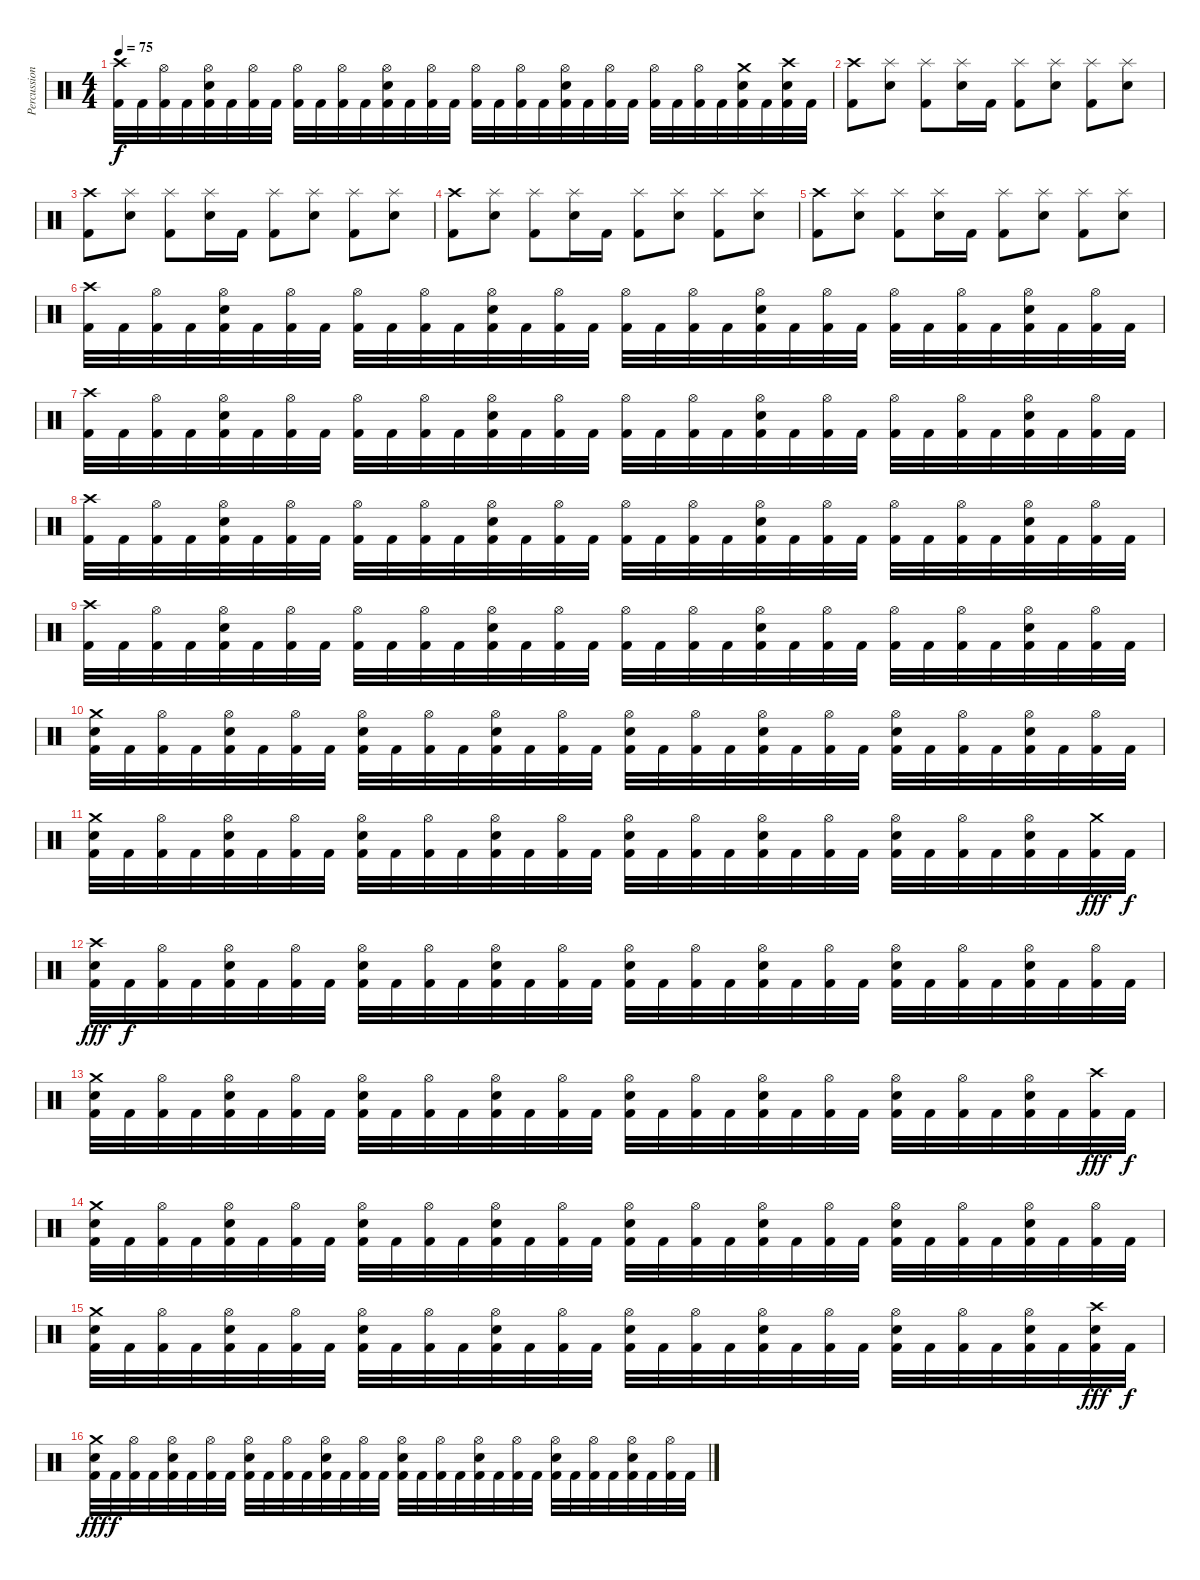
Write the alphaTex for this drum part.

\track ("Percussion" "Percussion") {instrument percussion}
\staff {score}
\articulation defaults
\ts (4 4)
\tempo 75
\clef neutral
\ks c
("Crash high (hit)" "Kick (hit) 2").32{dy f} "Kick (hit) 2".32 ("Hi-Hat (open)" "Kick (hit) 2").32 "Kick (hit) 2".32 ("Hi-Hat (open)" "Electric Snare (hit)" "Kick (hit) 2").32 "Kick (hit) 2".32 ("Hi-Hat (open)" "Kick (hit) 2").32 "Kick (hit) 2".32 ("Hi-Hat (open)" "Kick (hit) 2").32 "Kick (hit) 2".32 ("Hi-Hat (open)" "Kick (hit) 2").32 "Kick (hit) 2".32 ("Hi-Hat (open)" "Electric Snare (hit)" "Kick (hit) 2").32 "Kick (hit) 2".32 ("Hi-Hat (open)" "Kick (hit) 2").32 "Kick (hit) 2".32 ("Hi-Hat (open)" "Kick (hit) 2").32 "Kick (hit) 2".32 ("Hi-Hat (open)" "Kick (hit) 2").32 "Kick (hit) 2".32 ("Hi-Hat (open)" "Electric Snare (hit)" "Kick (hit) 2").32 "Kick (hit) 2".32 ("Hi-Hat (open)" "Kick (hit) 2").32 "Kick (hit) 2".32 ("Hi-Hat (open)" "Kick (hit) 2").32 "Kick (hit) 2".32 ("Hi-Hat (open)" "Kick (hit) 2").32 "Kick (hit) 2".32 ("Crash medium (hit)" "Electric Snare (hit)" "Kick (hit) 2").32 "Kick (hit) 2".32 ("Crash high (hit)" "Electric Snare (hit)" "Kick (hit) 2").32 "Kick (hit) 2".32 |
("Crash high (hit)" "Kick (hit) 2").8 ("Splash (hit)" "Electric Snare (hit)").8 ("Splash (hit)" "Kick (hit) 2").8 ("Splash (hit)" "Electric Snare (hit)").16 "Kick (hit) 2".16 ("Splash (hit)" "Kick (hit) 2").8 ("Splash (hit)" "Electric Snare (hit)").8 ("Splash (hit)" "Kick (hit) 2").8 ("Splash (hit)" "Electric Snare (hit)").8 |
("Crash high (hit)" "Kick (hit) 2").8 ("Splash (hit)" "Electric Snare (hit)").8 ("Splash (hit)" "Kick (hit) 2").8 ("Splash (hit)" "Electric Snare (hit)").16 "Kick (hit) 2".16 ("Splash (hit)" "Kick (hit) 2").8 ("Splash (hit)" "Electric Snare (hit)").8 ("Splash (hit)" "Kick (hit) 2").8 ("Splash (hit)" "Electric Snare (hit)").8 |
("Crash high (hit)" "Kick (hit) 2").8 ("Splash (hit)" "Electric Snare (hit)").8 ("Splash (hit)" "Kick (hit) 2").8 ("Splash (hit)" "Electric Snare (hit)").16 "Kick (hit) 2".16 ("Splash (hit)" "Kick (hit) 2").8 ("Splash (hit)" "Electric Snare (hit)").8 ("Splash (hit)" "Kick (hit) 2").8 ("Splash (hit)" "Electric Snare (hit)").8 |
("Crash high (hit)" "Kick (hit) 2").8 ("Splash (hit)" "Electric Snare (hit)").8 ("Splash (hit)" "Kick (hit) 2").8 ("Splash (hit)" "Electric Snare (hit)").16 "Kick (hit) 2".16 ("Splash (hit)" "Kick (hit) 2").8 ("Splash (hit)" "Electric Snare (hit)").8 ("Splash (hit)" "Kick (hit) 2").8 ("Splash (hit)" "Electric Snare (hit)").8 |
("Crash high (hit)" "Kick (hit) 2").32 "Kick (hit) 2".32 ("Hi-Hat (open)" "Kick (hit) 2").32 "Kick (hit) 2".32 ("Hi-Hat (open)" "Electric Snare (hit)" "Kick (hit) 2").32 "Kick (hit) 2".32 ("Hi-Hat (open)" "Kick (hit) 2").32 "Kick (hit) 2".32 ("Hi-Hat (open)" "Kick (hit) 2").32 "Kick (hit) 2".32 ("Hi-Hat (open)" "Kick (hit) 2").32 "Kick (hit) 2".32 ("Hi-Hat (open)" "Electric Snare (hit)" "Kick (hit) 2").32 "Kick (hit) 2".32 ("Hi-Hat (open)" "Kick (hit) 2").32 "Kick (hit) 2".32 ("Hi-Hat (open)" "Kick (hit) 2").32 "Kick (hit) 2".32 ("Hi-Hat (open)" "Kick (hit) 2").32 "Kick (hit) 2".32 ("Hi-Hat (open)" "Electric Snare (hit)" "Kick (hit) 2").32 "Kick (hit) 2".32 ("Hi-Hat (open)" "Kick (hit) 2").32 "Kick (hit) 2".32 ("Hi-Hat (open)" "Kick (hit) 2").32 "Kick (hit) 2".32 ("Hi-Hat (open)" "Kick (hit) 2").32 "Kick (hit) 2".32 ("Hi-Hat (open)" "Electric Snare (hit)" "Kick (hit) 2").32 "Kick (hit) 2".32 ("Hi-Hat (open)" "Kick (hit) 2").32 "Kick (hit) 2".32 |
("Crash high (hit)" "Kick (hit) 2").32 "Kick (hit) 2".32 ("Hi-Hat (open)" "Kick (hit) 2").32 "Kick (hit) 2".32 ("Hi-Hat (open)" "Electric Snare (hit)" "Kick (hit) 2").32 "Kick (hit) 2".32 ("Hi-Hat (open)" "Kick (hit) 2").32 "Kick (hit) 2".32 ("Hi-Hat (open)" "Kick (hit) 2").32 "Kick (hit) 2".32 ("Hi-Hat (open)" "Kick (hit) 2").32 "Kick (hit) 2".32 ("Hi-Hat (open)" "Electric Snare (hit)" "Kick (hit) 2").32 "Kick (hit) 2".32 ("Hi-Hat (open)" "Kick (hit) 2").32 "Kick (hit) 2".32 ("Hi-Hat (open)" "Kick (hit) 2").32 "Kick (hit) 2".32 ("Hi-Hat (open)" "Kick (hit) 2").32 "Kick (hit) 2".32 ("Hi-Hat (open)" "Electric Snare (hit)" "Kick (hit) 2").32 "Kick (hit) 2".32 ("Hi-Hat (open)" "Kick (hit) 2").32 "Kick (hit) 2".32 ("Hi-Hat (open)" "Kick (hit) 2").32 "Kick (hit) 2".32 ("Hi-Hat (open)" "Kick (hit) 2").32 "Kick (hit) 2".32 ("Hi-Hat (open)" "Electric Snare (hit)" "Kick (hit) 2").32 "Kick (hit) 2".32 ("Hi-Hat (open)" "Kick (hit) 2").32 "Kick (hit) 2".32 |
("Crash high (hit)" "Kick (hit) 2").32 "Kick (hit) 2".32 ("Hi-Hat (open)" "Kick (hit) 2").32 "Kick (hit) 2".32 ("Hi-Hat (open)" "Electric Snare (hit)" "Kick (hit) 2").32 "Kick (hit) 2".32 ("Hi-Hat (open)" "Kick (hit) 2").32 "Kick (hit) 2".32 ("Hi-Hat (open)" "Kick (hit) 2").32 "Kick (hit) 2".32 ("Hi-Hat (open)" "Kick (hit) 2").32 "Kick (hit) 2".32 ("Hi-Hat (open)" "Electric Snare (hit)" "Kick (hit) 2").32 "Kick (hit) 2".32 ("Hi-Hat (open)" "Kick (hit) 2").32 "Kick (hit) 2".32 ("Hi-Hat (open)" "Kick (hit) 2").32 "Kick (hit) 2".32 ("Hi-Hat (open)" "Kick (hit) 2").32 "Kick (hit) 2".32 ("Hi-Hat (open)" "Electric Snare (hit)" "Kick (hit) 2").32 "Kick (hit) 2".32 ("Hi-Hat (open)" "Kick (hit) 2").32 "Kick (hit) 2".32 ("Hi-Hat (open)" "Kick (hit) 2").32 "Kick (hit) 2".32 ("Hi-Hat (open)" "Kick (hit) 2").32 "Kick (hit) 2".32 ("Hi-Hat (open)" "Electric Snare (hit)" "Kick (hit) 2").32 "Kick (hit) 2".32 ("Hi-Hat (open)" "Kick (hit) 2").32 "Kick (hit) 2".32 |
("Crash high (hit)" "Kick (hit) 2").32 "Kick (hit) 2".32 ("Hi-Hat (open)" "Kick (hit) 2").32 "Kick (hit) 2".32 ("Hi-Hat (open)" "Electric Snare (hit)" "Kick (hit) 2").32 "Kick (hit) 2".32 ("Hi-Hat (open)" "Kick (hit) 2").32 "Kick (hit) 2".32 ("Hi-Hat (open)" "Kick (hit) 2").32 "Kick (hit) 2".32 ("Hi-Hat (open)" "Kick (hit) 2").32 "Kick (hit) 2".32 ("Hi-Hat (open)" "Electric Snare (hit)" "Kick (hit) 2").32 "Kick (hit) 2".32 ("Hi-Hat (open)" "Kick (hit) 2").32 "Kick (hit) 2".32 ("Hi-Hat (open)" "Kick (hit) 2").32 "Kick (hit) 2".32 ("Hi-Hat (open)" "Kick (hit) 2").32 "Kick (hit) 2".32 ("Hi-Hat (open)" "Electric Snare (hit)" "Kick (hit) 2").32 "Kick (hit) 2".32 ("Hi-Hat (open)" "Kick (hit) 2").32 "Kick (hit) 2".32 ("Hi-Hat (open)" "Kick (hit) 2").32 "Kick (hit) 2".32 ("Hi-Hat (open)" "Kick (hit) 2").32 "Kick (hit) 2".32 ("Hi-Hat (open)" "Electric Snare (hit)" "Kick (hit) 2").32 "Kick (hit) 2".32 ("Hi-Hat (open)" "Kick (hit) 2").32 "Kick (hit) 2".32 |
("Crash medium (hit)" "Electric Snare (hit)" "Kick (hit) 2").32 "Kick (hit) 2".32 ("Hi-Hat (open)" "Kick (hit) 2").32 "Kick (hit) 2".32 ("Hi-Hat (open)" "Electric Snare (hit)" "Kick (hit) 2").32 "Kick (hit) 2".32 ("Hi-Hat (open)" "Kick (hit) 2").32 "Kick (hit) 2".32 ("Hi-Hat (open)" "Electric Snare (hit)" "Kick (hit) 2").32 "Kick (hit) 2".32 ("Hi-Hat (open)" "Kick (hit) 2").32 "Kick (hit) 2".32 ("Hi-Hat (open)" "Electric Snare (hit)" "Kick (hit) 2").32 "Kick (hit) 2".32 ("Hi-Hat (open)" "Kick (hit) 2").32 "Kick (hit) 2".32 ("Hi-Hat (open)" "Electric Snare (hit)" "Kick (hit) 2").32 "Kick (hit) 2".32 ("Hi-Hat (open)" "Kick (hit) 2").32 "Kick (hit) 2".32 ("Hi-Hat (open)" "Electric Snare (hit)" "Kick (hit) 2").32 "Kick (hit) 2".32 ("Hi-Hat (open)" "Kick (hit) 2").32 "Kick (hit) 2".32 ("Hi-Hat (open)" "Electric Snare (hit)" "Kick (hit) 2").32 "Kick (hit) 2".32 ("Hi-Hat (open)" "Kick (hit) 2").32 "Kick (hit) 2".32 ("Hi-Hat (open)" "Electric Snare (hit)" "Kick (hit) 2").32 "Kick (hit) 2".32 ("Hi-Hat (open)" "Kick (hit) 2").32 "Kick (hit) 2".32 |
("Crash medium (hit)" "Electric Snare (hit)" "Kick (hit) 2").32 "Kick (hit) 2".32 ("Hi-Hat (open)" "Kick (hit) 2").32 "Kick (hit) 2".32 ("Hi-Hat (open)" "Electric Snare (hit)" "Kick (hit) 2").32 "Kick (hit) 2".32 ("Hi-Hat (open)" "Kick (hit) 2").32 "Kick (hit) 2".32 ("Hi-Hat (open)" "Electric Snare (hit)" "Kick (hit) 2").32 "Kick (hit) 2".32 ("Hi-Hat (open)" "Kick (hit) 2").32 "Kick (hit) 2".32 ("Hi-Hat (open)" "Electric Snare (hit)" "Kick (hit) 2").32 "Kick (hit) 2".32 ("Hi-Hat (open)" "Kick (hit) 2").32 "Kick (hit) 2".32 ("Hi-Hat (open)" "Electric Snare (hit)" "Kick (hit) 2").32 "Kick (hit) 2".32 ("Hi-Hat (open)" "Kick (hit) 2").32 "Kick (hit) 2".32 ("Hi-Hat (open)" "Electric Snare (hit)" "Kick (hit) 2").32 "Kick (hit) 2".32 ("Hi-Hat (open)" "Kick (hit) 2").32 "Kick (hit) 2".32 ("Hi-Hat (open)" "Electric Snare (hit)" "Kick (hit) 2").32 "Kick (hit) 2".32 ("Hi-Hat (open)" "Kick (hit) 2").32 "Kick (hit) 2".32 ("Hi-Hat (open)" "Electric Snare (hit)" "Kick (hit) 2").32 "Kick (hit) 2".32 ("Crash medium (hit)" "Kick (hit) 2").32{dy fff} "Kick (hit) 2".32{dy f} |
("Crash high (hit)" "Electric Snare (hit)" "Kick (hit) 2").32{dy fff} "Kick (hit) 2".32{dy f} ("Hi-Hat (open)" "Kick (hit) 2").32 "Kick (hit) 2".32 ("Hi-Hat (open)" "Electric Snare (hit)" "Kick (hit) 2").32 "Kick (hit) 2".32 ("Hi-Hat (open)" "Kick (hit) 2").32 "Kick (hit) 2".32 ("Hi-Hat (open)" "Electric Snare (hit)" "Kick (hit) 2").32 "Kick (hit) 2".32 ("Hi-Hat (open)" "Kick (hit) 2").32 "Kick (hit) 2".32 ("Hi-Hat (open)" "Electric Snare (hit)" "Kick (hit) 2").32 "Kick (hit) 2".32 ("Hi-Hat (open)" "Kick (hit) 2").32 "Kick (hit) 2".32 ("Hi-Hat (open)" "Electric Snare (hit)" "Kick (hit) 2").32 "Kick (hit) 2".32 ("Hi-Hat (open)" "Kick (hit) 2").32 "Kick (hit) 2".32 ("Hi-Hat (open)" "Electric Snare (hit)" "Kick (hit) 2").32 "Kick (hit) 2".32 ("Hi-Hat (open)" "Kick (hit) 2").32 "Kick (hit) 2".32 ("Hi-Hat (open)" "Electric Snare (hit)" "Kick (hit) 2").32 "Kick (hit) 2".32 ("Hi-Hat (open)" "Kick (hit) 2").32 "Kick (hit) 2".32 ("Hi-Hat (open)" "Electric Snare (hit)" "Kick (hit) 2").32 "Kick (hit) 2".32 ("Hi-Hat (open)" "Kick (hit) 2").32 "Kick (hit) 2".32 |
("Crash medium (hit)" "Electric Snare (hit)" "Kick (hit) 2").32 "Kick (hit) 2".32 ("Hi-Hat (open)" "Kick (hit) 2").32 "Kick (hit) 2".32 ("Hi-Hat (open)" "Electric Snare (hit)" "Kick (hit) 2").32 "Kick (hit) 2".32 ("Hi-Hat (open)" "Kick (hit) 2").32 "Kick (hit) 2".32 ("Hi-Hat (open)" "Electric Snare (hit)" "Kick (hit) 2").32 "Kick (hit) 2".32 ("Hi-Hat (open)" "Kick (hit) 2").32 "Kick (hit) 2".32 ("Hi-Hat (open)" "Electric Snare (hit)" "Kick (hit) 2").32 "Kick (hit) 2".32 ("Hi-Hat (open)" "Kick (hit) 2").32 "Kick (hit) 2".32 ("Hi-Hat (open)" "Electric Snare (hit)" "Kick (hit) 2").32 "Kick (hit) 2".32 ("Hi-Hat (open)" "Kick (hit) 2").32 "Kick (hit) 2".32 ("Hi-Hat (open)" "Electric Snare (hit)" "Kick (hit) 2").32 "Kick (hit) 2".32 ("Hi-Hat (open)" "Kick (hit) 2").32 "Kick (hit) 2".32 ("Hi-Hat (open)" "Electric Snare (hit)" "Kick (hit) 2").32 "Kick (hit) 2".32 ("Hi-Hat (open)" "Kick (hit) 2").32 "Kick (hit) 2".32 ("Hi-Hat (open)" "Electric Snare (hit)" "Kick (hit) 2").32 "Kick (hit) 2".32 ("Crash high (hit)" "Kick (hit) 2").32{dy fff} "Kick (hit) 2".32{dy f} |
("Crash medium (hit)" "Electric Snare (hit)" "Kick (hit) 2").32 "Kick (hit) 2".32 ("Hi-Hat (open)" "Kick (hit) 2").32 "Kick (hit) 2".32 ("Hi-Hat (open)" "Electric Snare (hit)" "Kick (hit) 2").32 "Kick (hit) 2".32 ("Hi-Hat (open)" "Kick (hit) 2").32 "Kick (hit) 2".32 ("Hi-Hat (open)" "Electric Snare (hit)" "Kick (hit) 2").32 "Kick (hit) 2".32 ("Hi-Hat (open)" "Kick (hit) 2").32 "Kick (hit) 2".32 ("Hi-Hat (open)" "Electric Snare (hit)" "Kick (hit) 2").32 "Kick (hit) 2".32 ("Hi-Hat (open)" "Kick (hit) 2").32 "Kick (hit) 2".32 ("Hi-Hat (open)" "Electric Snare (hit)" "Kick (hit) 2").32 "Kick (hit) 2".32 ("Hi-Hat (open)" "Kick (hit) 2").32 "Kick (hit) 2".32 ("Hi-Hat (open)" "Electric Snare (hit)" "Kick (hit) 2").32 "Kick (hit) 2".32 ("Hi-Hat (open)" "Kick (hit) 2").32 "Kick (hit) 2".32 ("Hi-Hat (open)" "Electric Snare (hit)" "Kick (hit) 2").32 "Kick (hit) 2".32 ("Hi-Hat (open)" "Kick (hit) 2").32 "Kick (hit) 2".32 ("Hi-Hat (open)" "Electric Snare (hit)" "Kick (hit) 2").32 "Kick (hit) 2".32 ("Hi-Hat (open)" "Kick (hit) 2").32 "Kick (hit) 2".32 |
("Crash medium (hit)" "Electric Snare (hit)" "Kick (hit) 2").32 "Kick (hit) 2".32 ("Hi-Hat (open)" "Kick (hit) 2").32 "Kick (hit) 2".32 ("Hi-Hat (open)" "Electric Snare (hit)" "Kick (hit) 2").32 "Kick (hit) 2".32 ("Hi-Hat (open)" "Kick (hit) 2").32 "Kick (hit) 2".32 ("Hi-Hat (open)" "Electric Snare (hit)" "Kick (hit) 2").32 "Kick (hit) 2".32 ("Hi-Hat (open)" "Kick (hit) 2").32 "Kick (hit) 2".32 ("Hi-Hat (open)" "Electric Snare (hit)" "Kick (hit) 2").32 "Kick (hit) 2".32 ("Hi-Hat (open)" "Kick (hit) 2").32 "Kick (hit) 2".32 ("Hi-Hat (open)" "Electric Snare (hit)" "Kick (hit) 2").32 "Kick (hit) 2".32 ("Hi-Hat (open)" "Kick (hit) 2").32 "Kick (hit) 2".32 ("Hi-Hat (open)" "Electric Snare (hit)" "Kick (hit) 2").32 "Kick (hit) 2".32 ("Hi-Hat (open)" "Kick (hit) 2").32 "Kick (hit) 2".32 ("Hi-Hat (open)" "Electric Snare (hit)" "Kick (hit) 2").32 "Kick (hit) 2".32 ("Hi-Hat (open)" "Kick (hit) 2").32 "Kick (hit) 2".32 ("Hi-Hat (open)" "Electric Snare (hit)" "Kick (hit) 2").32 "Kick (hit) 2".32 ("Crash high (hit)" "Electric Snare (hit)" "Kick (hit) 2").32{dy fff} "Kick (hit) 2".32{dy f} |
("Crash medium (hit)" "Electric Snare (hit)" "Kick (hit) 2").32{dy fff} "Kick (hit) 2".32{dy f} ("Hi-Hat (open)" "Kick (hit) 2").32 "Kick (hit) 2".32 ("Hi-Hat (open)" "Electric Snare (hit)" "Kick (hit) 2").32 "Kick (hit) 2".32 ("Hi-Hat (open)" "Kick (hit) 2").32 "Kick (hit) 2".32 ("Hi-Hat (open)" "Electric Snare (hit)" "Kick (hit) 2").32 "Kick (hit) 2".32 ("Hi-Hat (open)" "Kick (hit) 2").32 "Kick (hit) 2".32 ("Hi-Hat (open)" "Electric Snare (hit)" "Kick (hit) 2").32 "Kick (hit) 2".32 ("Hi-Hat (open)" "Kick (hit) 2").32 "Kick (hit) 2".32 ("Hi-Hat (open)" "Electric Snare (hit)" "Kick (hit) 2").32 "Kick (hit) 2".32 ("Hi-Hat (open)" "Kick (hit) 2").32 "Kick (hit) 2".32 ("Hi-Hat (open)" "Electric Snare (hit)" "Kick (hit) 2").32 "Kick (hit) 2".32 ("Hi-Hat (open)" "Kick (hit) 2").32 "Kick (hit) 2".32 ("Hi-Hat (open)" "Electric Snare (hit)" "Kick (hit) 2").32 "Kick (hit) 2".32 ("Hi-Hat (open)" "Kick (hit) 2").32 "Kick (hit) 2".32 ("Hi-Hat (open)" "Electric Snare (hit)" "Kick (hit) 2").32 "Kick (hit) 2".32 ("Hi-Hat (open)" "Kick (hit) 2").32 "Kick (hit) 2".32
